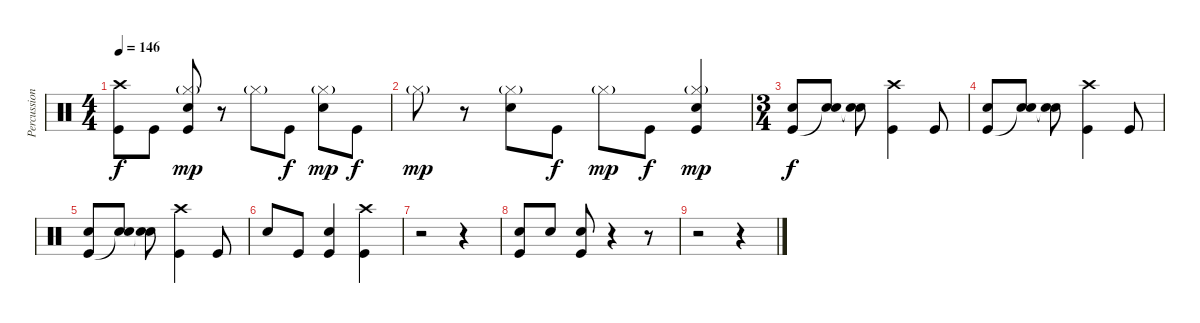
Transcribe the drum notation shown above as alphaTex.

\track ("Percussion" "Percussion") {instrument percussion}
\staff {score}
\articulation defaults
\ts (4 4)
\tempo 146
\clef neutral
\ks c
("Crash high (hit)" "Kick (hit)").8{dy f} "Kick (hit)".8 ("Hi-Hat (closed)"{g} "Snare (hit) 2" "Kick (hit)").8{dy mp} r.8 "Hi-Hat (closed)"{g}.8 "Kick (hit)".8{dy f} ("Hi-Hat (closed)"{g} "Snare (hit) 2").8{dy mp} "Kick (hit)".8{dy f} |
"Hi-Hat (closed)"{g}.8{dy mp} r.8 ("Hi-Hat (closed)"{g} "Snare (hit) 2").8 "Kick (hit)".8{dy f} "Hi-Hat (closed)"{g}.8{dy mp} "Kick (hit)".8{dy f} ("Hi-Hat (closed)"{g} "Snare (hit) 2" "Kick (hit)").4{dy mp} |
\ts (3 4)
("Snare (hit) 2" "Kick (hit)").8{dy f} ("Snare (hit) 2" "Snare (hit)"{t}).8 ("Snare (hit) 2" "Snare (hit)"{t}).8 ("Crash high (hit)" "Kick (hit)").4 "Kick (hit)".8 |
("Snare (hit) 2" "Kick (hit)").8 ("Snare (hit) 2" "Snare (hit)"{t}).8 ("Snare (hit) 2" "Snare (hit)"{t}).8 ("Crash high (hit)" "Kick (hit)").4 "Kick (hit)".8 |
("Snare (hit) 2" "Kick (hit)").8 ("Snare (hit) 2" "Snare (hit)"{t}).8 ("Snare (hit) 2" "Snare (hit)"{t}).8 ("Crash high (hit)" "Kick (hit)").4 "Kick (hit)".8 |
"Snare (hit) 2".8 "Kick (hit)".8 ("Snare (hit) 2" "Kick (hit)").4 ("Crash high (hit)" "Kick (hit)").4 |
r.2 r.4 |
("Snare (hit) 2" "Kick (hit)").8 "Snare (hit) 2".8 ("Snare (hit) 2" "Kick (hit)").8 r.4 r.8 |
r.2 r.4
